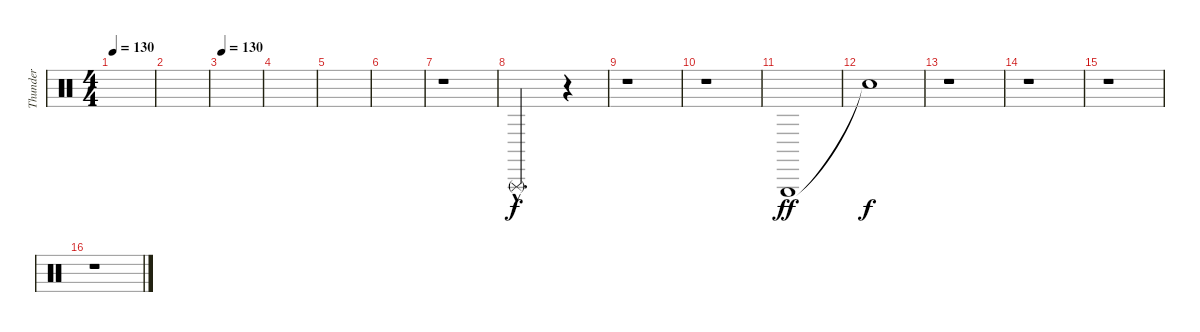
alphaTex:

\track ("Thunder" "Thunder") {instrument percussion}
\staff {score}
\articulation defaults
\ts (4 4)
\tempo 130
\clef neutral
\ks c
|
|
\tempo 130
|
|
|
|
r.1 |
"Triangle (rnute)"{hac}.2{d dy f} r.4 |
r.1 |
r.1 |
"Triangle (hit)".1{dy ff} |
"Snare (hit)"{t}.1{dy f} |
r.1 |
r.1 |
r.1 |
r.1
